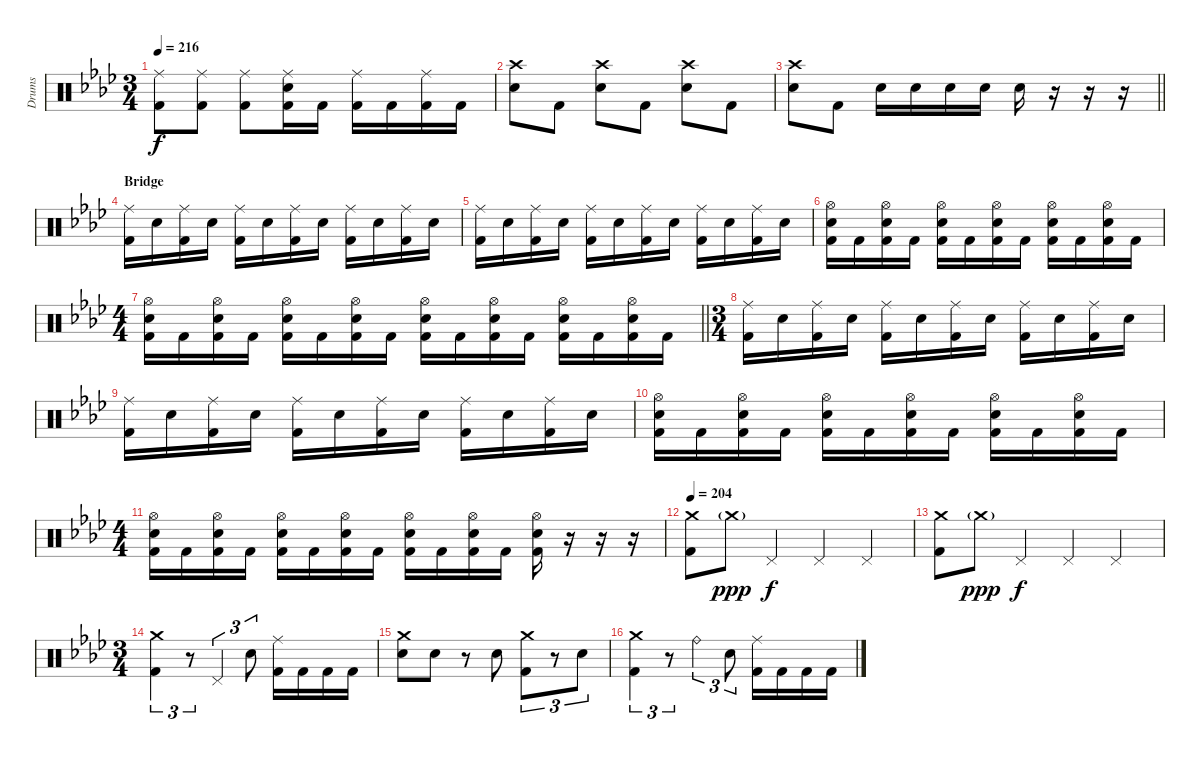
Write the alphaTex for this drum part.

\bracketExtendMode groupsimilarinstruments
\otherSystemsTrackNameOrientation horizontal
\track ("Guyot Begin-Benoit" "Drums") {instrument percussion}
\staff {score}
\articulation defaults
\ts (3 4)
\tempo 216
\clef neutral
\ks ab
("Ride (middle)"{acc forcenatural} "Kick (hit) 2"{acc forcenatural}).8{dy f beam Down} ("Ride (middle)"{acc forcenatural} "Kick (hit) 2"{acc forcenatural}).8{beam Down} ("Ride (middle)"{acc forcenatural} "Kick (hit) 2"{acc forcenatural}).8{beam Down} ("Ride (middle)"{acc forcenatural} "Snare (hit) 2"{acc forcenatural} "Kick (hit) 2"{acc forcenatural}).16{beam Down} "Kick (hit) 2"{acc forcenatural}.16{beam Down} ("Ride (middle)"{acc forcenatural} "Kick (hit) 2"{acc forcenatural}).16{beam Down} "Kick (hit) 2"{acc forcenatural}.16{beam Down} ("Ride (middle)"{acc forcenatural} "Kick (hit) 2"{acc forcenatural}).16{beam Down} "Kick (hit) 2"{acc forcenatural}.16{beam Down} |
("Crash high (hit)"{acc forcenatural} "Snare (hit) 2"{acc forcenatural}).8{beam Down} "Kick (hit) 2"{acc forcenatural}.8{beam Down} ("Crash high (hit)"{acc forcenatural} "Snare (hit) 2"{acc forcenatural}).8{beam Down} "Kick (hit) 2"{acc forcenatural}.8{beam Down} ("Crash high (hit)"{acc forcenatural} "Snare (hit) 2"{acc forcenatural}).8{beam Down} "Kick (hit) 2"{acc forcenatural}.8{beam Down} |
\barLineRight lightlight
("Crash high (hit)"{acc forcenatural} "Snare (hit) 2"{acc forcenatural}).8{beam Down} "Kick (hit) 2"{acc forcenatural}.8{beam Down} "Snare (hit) 2"{acc forcenatural}.16{beam Down} "Snare (hit) 2"{acc forcenatural}.16{beam Down} "Snare (hit) 2"{acc forcenatural}.16{beam Down} "Snare (hit) 2"{acc forcenatural}.16{beam Down} "Snare (hit) 2"{acc forcenatural}.16{beam Down} r.16{beam Down} r.16{beam Down} r.16{beam Down} |
\section ("" "Bridge")
("Ride (middle)"{acc forcenatural} "Kick (hit) 2"{acc forcenatural}).16{beam Down} "Snare (hit) 2"{acc forcenatural}.16{beam Down} ("Ride (middle)"{acc forcenatural} "Kick (hit) 2"{acc forcenatural}).16{beam Down} "Snare (hit) 2"{acc forcenatural}.16{beam Down} ("Ride (middle)"{acc forcenatural} "Kick (hit) 2"{acc forcenatural}).16{beam Down} "Snare (hit) 2"{acc forcenatural}.16{beam Down} ("Ride (middle)"{acc forcenatural} "Kick (hit) 2"{acc forcenatural}).16{beam Down} "Snare (hit) 2"{acc forcenatural}.16{beam Down} ("Ride (middle)"{acc forcenatural} "Kick (hit) 2"{acc forcenatural}).16{beam Down} "Snare (hit) 2"{acc forcenatural}.16{beam Down} ("Ride (middle)"{acc forcenatural} "Kick (hit) 2"{acc forcenatural}).16{beam Down} "Snare (hit) 2"{acc forcenatural}.16{beam Down} |
("Ride (middle)"{acc forcenatural} "Kick (hit) 2"{acc forcenatural}).16{beam Down} "Snare (hit) 2"{acc forcenatural}.16{beam Down} ("Ride (middle)"{acc forcenatural} "Kick (hit) 2"{acc forcenatural}).16{beam Down} "Snare (hit) 2"{acc forcenatural}.16{beam Down} ("Ride (middle)"{acc forcenatural} "Kick (hit) 2"{acc forcenatural}).16{beam Down} "Snare (hit) 2"{acc forcenatural}.16{beam Down} ("Ride (middle)"{acc forcenatural} "Kick (hit) 2"{acc forcenatural}).16{beam Down} "Snare (hit) 2"{acc forcenatural}.16{beam Down} ("Ride (middle)"{acc forcenatural} "Kick (hit) 2"{acc forcenatural}).16{beam Down} "Snare (hit) 2"{acc forcenatural}.16{beam Down} ("Ride (middle)"{acc forcenatural} "Kick (hit) 2"{acc forcenatural}).16{beam Down} "Snare (hit) 2"{acc forcenatural}.16{beam Down} |
("Hi-Hat (open)"{acc forcenatural} "Snare (hit) 2"{acc forcenatural} "Kick (hit) 2"{acc forcenatural}).16{beam Down} "Kick (hit) 2"{acc forcenatural}.16{beam Down} ("Hi-Hat (open)"{acc forcenatural} "Snare (hit) 2"{acc forcenatural} "Kick (hit) 2"{acc forcenatural}).16{beam Down} "Kick (hit) 2"{acc forcenatural}.16{beam Down} ("Hi-Hat (open)"{acc forcenatural} "Snare (hit) 2"{acc forcenatural} "Kick (hit) 2"{acc forcenatural}).16{beam Down} "Kick (hit) 2"{acc forcenatural}.16{beam Down} ("Hi-Hat (open)"{acc forcenatural} "Snare (hit) 2"{acc forcenatural} "Kick (hit) 2"{acc forcenatural}).16{beam Down} "Kick (hit) 2"{acc forcenatural}.16{beam Down} ("Hi-Hat (open)"{acc forcenatural} "Snare (hit) 2"{acc forcenatural} "Kick (hit) 2"{acc forcenatural}).16{beam Down} "Kick (hit) 2"{acc forcenatural}.16{beam Down} ("Hi-Hat (open)"{acc forcenatural} "Snare (hit) 2"{acc forcenatural} "Kick (hit) 2"{acc forcenatural}).16{beam Down} "Kick (hit) 2"{acc forcenatural}.16{beam Down} |
\ts (4 4)
\beaming (8 2 2 2 2)
\barLineRight lightlight
("Hi-Hat (open)"{acc forcenatural} "Snare (hit) 2"{acc forcenatural} "Kick (hit) 2"{acc forcenatural}).16{beam Down} "Kick (hit) 2"{acc forcenatural}.16{beam Down} ("Hi-Hat (open)"{acc forcenatural} "Snare (hit) 2"{acc forcenatural} "Kick (hit) 2"{acc forcenatural}).16{beam Down} "Kick (hit) 2"{acc forcenatural}.16{beam Down} ("Hi-Hat (open)"{acc forcenatural} "Snare (hit) 2"{acc forcenatural} "Kick (hit) 2"{acc forcenatural}).16{beam Down} "Kick (hit) 2"{acc forcenatural}.16{beam Down} ("Hi-Hat (open)"{acc forcenatural} "Snare (hit) 2"{acc forcenatural} "Kick (hit) 2"{acc forcenatural}).16{beam Down} "Kick (hit) 2"{acc forcenatural}.16{beam Down} ("Hi-Hat (open)"{acc forcenatural} "Snare (hit) 2"{acc forcenatural} "Kick (hit) 2"{acc forcenatural}).16{beam Down} "Kick (hit) 2"{acc forcenatural}.16{beam Down} ("Hi-Hat (open)"{acc forcenatural} "Snare (hit) 2"{acc forcenatural} "Kick (hit) 2"{acc forcenatural}).16{beam Down} "Kick (hit) 2"{acc forcenatural}.16{beam Down} ("Hi-Hat (open)"{acc forcenatural} "Snare (hit) 2"{acc forcenatural} "Kick (hit) 2"{acc forcenatural}).16{beam Down} "Kick (hit) 2"{acc forcenatural}.16{beam Down} ("Hi-Hat (open)"{acc forcenatural} "Snare (hit) 2"{acc forcenatural} "Kick (hit) 2"{acc forcenatural}).16{beam Down} "Kick (hit) 2"{acc forcenatural}.16{beam Down} |
\ts (3 4)
\beaming (8 2 2 2 2)
("Ride (middle)"{acc forcenatural} "Kick (hit) 2"{acc forcenatural}).16{beam Down} "Snare (hit) 2"{acc forcenatural}.16{beam Down} ("Ride (middle)"{acc forcenatural} "Kick (hit) 2"{acc forcenatural}).16{beam Down} "Snare (hit) 2"{acc forcenatural}.16{beam Down} ("Ride (middle)"{acc forcenatural} "Kick (hit) 2"{acc forcenatural}).16{beam Down} "Snare (hit) 2"{acc forcenatural}.16{beam Down} ("Ride (middle)"{acc forcenatural} "Kick (hit) 2"{acc forcenatural}).16{beam Down} "Snare (hit) 2"{acc forcenatural}.16{beam Down} ("Ride (middle)"{acc forcenatural} "Kick (hit) 2"{acc forcenatural}).16{beam Down} "Snare (hit) 2"{acc forcenatural}.16{beam Down} ("Ride (middle)"{acc forcenatural} "Kick (hit) 2"{acc forcenatural}).16{beam Down} "Snare (hit) 2"{acc forcenatural}.16{beam Down} |
("Ride (middle)"{acc forcenatural} "Kick (hit) 2"{acc forcenatural}).16{beam Down} "Snare (hit) 2"{acc forcenatural}.16{beam Down} ("Ride (middle)"{acc forcenatural} "Kick (hit) 2"{acc forcenatural}).16{beam Down} "Snare (hit) 2"{acc forcenatural}.16{beam Down} ("Ride (middle)"{acc forcenatural} "Kick (hit) 2"{acc forcenatural}).16{beam Down} "Snare (hit) 2"{acc forcenatural}.16{beam Down} ("Ride (middle)"{acc forcenatural} "Kick (hit) 2"{acc forcenatural}).16{beam Down} "Snare (hit) 2"{acc forcenatural}.16{beam Down} ("Ride (middle)"{acc forcenatural} "Kick (hit) 2"{acc forcenatural}).16{beam Down} "Snare (hit) 2"{acc forcenatural}.16{beam Down} ("Ride (middle)"{acc forcenatural} "Kick (hit) 2"{acc forcenatural}).16{beam Down} "Snare (hit) 2"{acc forcenatural}.16{beam Down} |
("Hi-Hat (open)"{acc forcenatural} "Snare (hit) 2"{acc forcenatural} "Kick (hit) 2"{acc forcenatural}).16{beam Down} "Kick (hit) 2"{acc forcenatural}.16{beam Down} ("Hi-Hat (open)"{acc forcenatural} "Snare (hit) 2"{acc forcenatural} "Kick (hit) 2"{acc forcenatural}).16{beam Down} "Kick (hit) 2"{acc forcenatural}.16{beam Down} ("Hi-Hat (open)"{acc forcenatural} "Snare (hit) 2"{acc forcenatural} "Kick (hit) 2"{acc forcenatural}).16{beam Down} "Kick (hit) 2"{acc forcenatural}.16{beam Down} ("Hi-Hat (open)"{acc forcenatural} "Snare (hit) 2"{acc forcenatural} "Kick (hit) 2"{acc forcenatural}).16{beam Down} "Kick (hit) 2"{acc forcenatural}.16{beam Down} ("Hi-Hat (open)"{acc forcenatural} "Snare (hit) 2"{acc forcenatural} "Kick (hit) 2"{acc forcenatural}).16{beam Down} "Kick (hit) 2"{acc forcenatural}.16{beam Down} ("Hi-Hat (open)"{acc forcenatural} "Snare (hit) 2"{acc forcenatural} "Kick (hit) 2"{acc forcenatural}).16{beam Down} "Kick (hit) 2"{acc forcenatural}.16{beam Down} |
\ts (4 4)
\beaming (8 2 2 2 2)
("Hi-Hat (open)"{acc forcenatural} "Snare (hit) 2"{acc forcenatural} "Kick (hit) 2"{acc forcenatural}).16{beam Down} "Kick (hit) 2"{acc forcenatural}.16{beam Down} ("Hi-Hat (open)"{acc forcenatural} "Snare (hit) 2"{acc forcenatural} "Kick (hit) 2"{acc forcenatural}).16{beam Down} "Kick (hit) 2"{acc forcenatural}.16{beam Down} ("Hi-Hat (open)"{acc forcenatural} "Snare (hit) 2"{acc forcenatural} "Kick (hit) 2"{acc forcenatural}).16{beam Down} "Kick (hit) 2"{acc forcenatural}.16{beam Down} ("Hi-Hat (open)"{acc forcenatural} "Snare (hit) 2"{acc forcenatural} "Kick (hit) 2"{acc forcenatural}).16{beam Down} "Kick (hit) 2"{acc forcenatural}.16{beam Down} ("Hi-Hat (open)"{acc forcenatural} "Snare (hit) 2"{acc forcenatural} "Kick (hit) 2"{acc forcenatural}).16{beam Down} "Kick (hit) 2"{acc forcenatural}.16{beam Down} ("Hi-Hat (open)"{acc forcenatural} "Snare (hit) 2"{acc forcenatural} "Kick (hit) 2"{acc forcenatural}).16{beam Down} "Kick (hit) 2"{acc forcenatural}.16{beam Down} ("Hi-Hat (open)"{acc forcenatural} "Snare (hit) 2"{acc forcenatural} "Kick (hit) 2"{acc forcenatural}).16{beam Down} r.16{beam Down} r.16{beam Down} r.16{beam Down} |
\tempo 204
("Crash medium (hit)"{acc forcenatural} "Kick (hit) 2"{acc forcenatural}).8{beam Down} "Crash medium (hit)"{g acc forcenatural}.8{dy ppp beam Down} "Pedal Hi-Hat (hit)"{acc forcenatural}.4{dy f beam Up} "Pedal Hi-Hat (hit)"{acc forcenatural}.4{beam Up} "Pedal Hi-Hat (hit)"{acc forcenatural}.4{beam Up} |
("Crash medium (hit)"{acc forcenatural} "Kick (hit) 2"{acc forcenatural}).8{beam Down} "Crash medium (hit)"{g acc forcenatural}.8{dy ppp beam Down} "Pedal Hi-Hat (hit)"{acc forcenatural}.4{dy f beam Up} "Pedal Hi-Hat (hit)"{acc forcenatural}.4{beam Up} "Pedal Hi-Hat (hit)"{acc forcenatural}.4{beam Up} |
\ts (3 4)
\beaming (8 2 2 2)
("Crash medium (hit)"{acc forcenatural} "Kick (hit) 2"{acc forcenatural}).4{tu (3 2) beam Down} r.8{tu (3 2) beam Down} "Pedal Hi-Hat (hit)"{acc forcenatural}.4{tu (3 2) beam Up} "Snare (hit) 2"{acc forcenatural}.8{tu (3 2) beam Down} ("Ride (middle)"{acc forcenatural} "Kick (hit) 2"{acc forcenatural}).16{beam Down} "Kick (hit) 2"{acc forcenatural}.16{beam Down} "Kick (hit) 2"{acc forcenatural}.16{beam Down} "Kick (hit) 2"{acc forcenatural}.16{beam Down} |
\beaming (8 2 2 2 2)
("Crash medium (hit)"{acc forcenatural} "Snare (hit) 2"{acc forcenatural}).8{beam Down} "Snare (hit) 2"{acc forcenatural}.8{beam Down} r.8{beam Down} "Snare (hit) 2"{acc forcenatural}.8{beam Down} ("Crash medium (hit)"{acc forcenatural} "Kick (hit) 2"{acc forcenatural}).8{tu (3 2) beam Down} r.8{tu (3 2) beam Down} "Snare (hit) 2"{acc forcenatural}.8{tu (3 2) beam Down} |
("Crash medium (hit)"{acc forcenatural} "Kick (hit) 2"{acc forcenatural}).4{tu (3 2) beam Down} r.8{tu (3 2) beam Down} "Ride (bell)"{acc forcenatural}.4{tu (3 2) beam Down} "Snare (hit) 2"{acc forcenatural}.8{tu (3 2) beam Down} ("Ride (middle)"{acc forcenatural} "Kick (hit) 2"{acc forcenatural}).16{beam Down} "Kick (hit) 2"{acc forcenatural}.16{beam Down} "Kick (hit) 2"{acc forcenatural}.16{beam Down} "Kick (hit) 2"{acc forcenatural}.16{beam Down}
